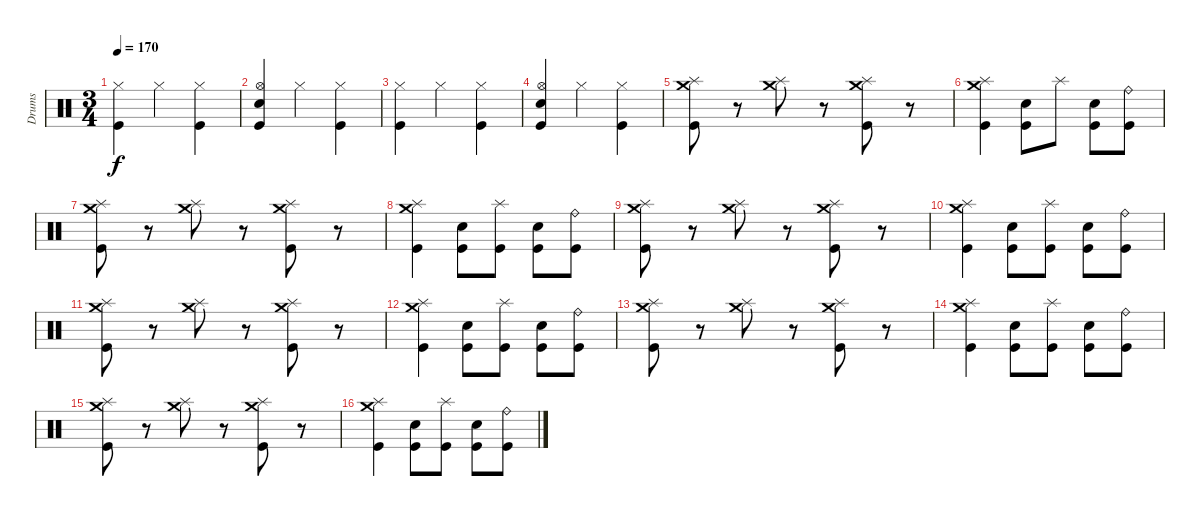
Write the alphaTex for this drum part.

\track ("Drums" "Drums") {instrument percussion}
\staff {score}
\articulation defaults
\ts (3 4)
\tempo 170
\clef neutral
\ks c
("Hi-Hat (closed)" "Kick (hit)").4{dy f} "Hi-Hat (closed)".4 ("Hi-Hat (closed)" "Kick (hit)").4 |
("Hi-Hat (open)" "Electric Snare (hit)" "Kick (hit)").4 "Hi-Hat (closed)".4 ("Hi-Hat (closed)" "Kick (hit)").4 |
("Hi-Hat (closed)" "Kick (hit)").4 "Hi-Hat (closed)".4 ("Hi-Hat (closed)" "Kick (hit)").4 |
("Hi-Hat (open)" "Electric Snare (hit)" "Kick (hit)").4 "Hi-Hat (closed)".4 ("Hi-Hat (closed)" "Kick (hit)").4 |
("Splash (hit)" "Crash medium (hit)" "Kick (hit)").8 r.8 ("Splash (hit)" "Crash medium (hit)").8 r.8 ("Splash (hit)" "Crash medium (hit)" "Kick (hit)").8 r.8 |
("Splash (hit)" "Crash medium (hit)" "Kick (hit)").4 ("Electric Snare (hit)" "Kick (hit)").8 "Splash (hit)".8 ("Electric Snare (hit)" "Kick (hit)").8 ("Ride (bell)" "Kick (hit)").8 |
("Splash (hit)" "Crash medium (hit)" "Kick (hit)").8 r.8 ("Splash (hit)" "Crash medium (hit)").8 r.8 ("Splash (hit)" "Crash medium (hit)" "Kick (hit)").8 r.8 |
("Splash (hit)" "Crash medium (hit)" "Kick (hit)").4 ("Electric Snare (hit)" "Kick (hit)").8 ("Splash (hit)" "Kick (hit)").8 ("Electric Snare (hit)" "Kick (hit)").8 ("Ride (bell)" "Kick (hit)").8 |
("Splash (hit)" "Crash medium (hit)" "Kick (hit)").8 r.8 ("Splash (hit)" "Crash medium (hit)").8 r.8 ("Splash (hit)" "Crash medium (hit)" "Kick (hit)").8 r.8 |
("Splash (hit)" "Crash medium (hit)" "Kick (hit)").4 ("Electric Snare (hit)" "Kick (hit)").8 ("Splash (hit)" "Kick (hit)").8 ("Electric Snare (hit)" "Kick (hit)").8 ("Ride (bell)" "Kick (hit)").8 |
("Splash (hit)" "Crash medium (hit)" "Kick (hit)").8 r.8 ("Splash (hit)" "Crash medium (hit)").8 r.8 ("Splash (hit)" "Crash medium (hit)" "Kick (hit)").8 r.8 |
("Splash (hit)" "Crash medium (hit)" "Kick (hit)").4 ("Electric Snare (hit)" "Kick (hit)").8 ("Splash (hit)" "Kick (hit)").8 ("Electric Snare (hit)" "Kick (hit)").8 ("Ride (bell)" "Kick (hit)").8 |
("Splash (hit)" "Crash medium (hit)" "Kick (hit)").8 r.8 ("Splash (hit)" "Crash medium (hit)").8 r.8 ("Splash (hit)" "Crash medium (hit)" "Kick (hit)").8 r.8 |
("Splash (hit)" "Crash medium (hit)" "Kick (hit)").4 ("Electric Snare (hit)" "Kick (hit)").8 ("Splash (hit)" "Kick (hit)").8 ("Electric Snare (hit)" "Kick (hit)").8 ("Ride (bell)" "Kick (hit)").8 |
("Splash (hit)" "Crash medium (hit)" "Kick (hit)").8 r.8 ("Splash (hit)" "Crash medium (hit)").8 r.8 ("Splash (hit)" "Crash medium (hit)" "Kick (hit)").8 r.8 |
("Splash (hit)" "Crash medium (hit)" "Kick (hit)").4 ("Electric Snare (hit)" "Kick (hit)").8 ("Splash (hit)" "Kick (hit)").8 ("Electric Snare (hit)" "Kick (hit)").8 ("Ride (bell)" "Kick (hit)").8
